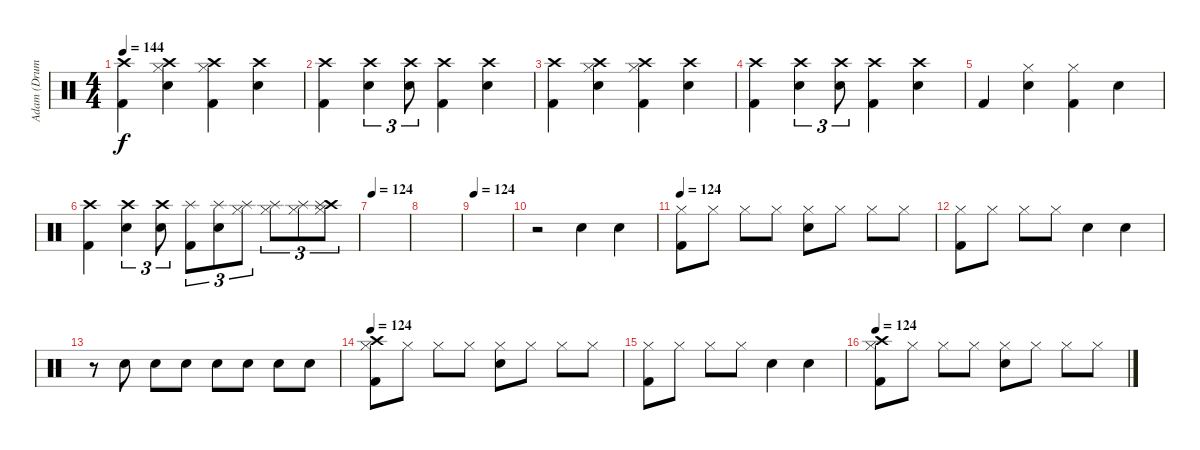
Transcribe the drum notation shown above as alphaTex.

\track ("Adam (Drums)" "Adam (Drum") {instrument percussion}
\staff {score}
\articulation defaults
\ts (4 4)
\tempo 144
\clef neutral
\ks c
("Crash high (hit)" "Kick (hit) 2").4{dy f} ("Hi-Hat (closed)" "Crash high (hit)" "Electric Snare (hit)").4 ("Hi-Hat (closed)" "Crash high (hit)" "Kick (hit) 2").4 ("Crash high (hit)" "Electric Snare (hit)").4 |
("Kick (hit) 2" "Crash high (hit)").4 ("Electric Snare (hit)" "Crash high (hit)").4{tu (3 2)} ("Electric Snare (hit)" "Crash high (hit)").8{tu (3 2)} ("Kick (hit) 2" "Crash high (hit)").4 ("Electric Snare (hit)" "Crash high (hit)").4 |
("Crash high (hit)" "Kick (hit) 2").4 ("Hi-Hat (closed)" "Crash high (hit)" "Electric Snare (hit)").4 ("Hi-Hat (closed)" "Crash high (hit)" "Kick (hit) 2").4 ("Crash high (hit)" "Electric Snare (hit)").4 |
("Kick (hit) 2" "Crash high (hit)").4 ("Electric Snare (hit)" "Crash high (hit)").4{tu (3 2)} ("Electric Snare (hit)" "Crash high (hit)").8{tu (3 2)} ("Kick (hit) 2" "Crash high (hit)").4 ("Electric Snare (hit)" "Crash high (hit)").4 |
"Kick (hit) 2".4 ("Hi-Hat (closed)" "Electric Snare (hit)").4 ("Hi-Hat (closed)" "Kick (hit) 2").4 "Electric Snare (hit)".4 |
("Kick (hit) 2" "Crash high (hit)").4 ("Electric Snare (hit)" "Crash high (hit)").4{tu (3 2)} ("Electric Snare (hit)" "Crash high (hit)").8{tu (3 2)} ("Kick (hit) 2" "Splash (hit)").8{tu (3 2)} ("Electric Snare (hit)" "Splash (hit)").8{tu (3 2)} ("Hi-Hat (closed)" "Splash (hit)").8{tu (3 2)} ("Hi-Hat (closed)" "Splash (hit)").8{tu (3 2)} ("Hi-Hat (closed)" "Splash (hit)").8{tu (3 2)} ("Crash high (hit)" "Hi-Hat (closed)" "Splash (hit)").8{tu (3 2)} |
\tempo 124
|
|
\tempo 124
|
r.2 "Electric Snare (hit)".4 "Electric Snare (hit)".4 |
\tempo 124
("Hi-Hat (closed)" "Kick (hit) 2").8 "Hi-Hat (closed)".8 "Hi-Hat (closed)".8 "Hi-Hat (closed)".8 ("Hi-Hat (closed)" "Electric Snare (hit)").8 "Hi-Hat (closed)".8 "Hi-Hat (closed)".8 "Hi-Hat (closed)".8 |
("Hi-Hat (closed)" "Kick (hit) 2").8 "Hi-Hat (closed)".8 "Hi-Hat (closed)".8 "Hi-Hat (closed)".8 "Electric Snare (hit)".4 "Electric Snare (hit)".4 |
r.8 "Electric Snare (hit)".8 "Electric Snare (hit)".8 "Electric Snare (hit)".8 "Electric Snare (hit)".8 "Electric Snare (hit)".8 "Electric Snare (hit)".8 "Electric Snare (hit)".8 |
\tempo 124
("Crash high (hit)" "Hi-Hat (closed)" "Kick (hit) 2").8 "Hi-Hat (closed)".8 "Hi-Hat (closed)".8 "Hi-Hat (closed)".8 ("Hi-Hat (closed)" "Electric Snare (hit)").8 "Hi-Hat (closed)".8 "Hi-Hat (closed)".8 "Hi-Hat (closed)".8 |
("Hi-Hat (closed)" "Kick (hit) 2").8 "Hi-Hat (closed)".8 "Hi-Hat (closed)".8 "Hi-Hat (closed)".8 "Electric Snare (hit)".4 "Electric Snare (hit)".4 |
\tempo 124
("Crash high (hit)" "Hi-Hat (closed)" "Kick (hit) 2").8 "Hi-Hat (closed)".8 "Hi-Hat (closed)".8 "Hi-Hat (closed)".8 ("Hi-Hat (closed)" "Electric Snare (hit)").8 "Hi-Hat (closed)".8 "Hi-Hat (closed)".8 "Hi-Hat (closed)".8
